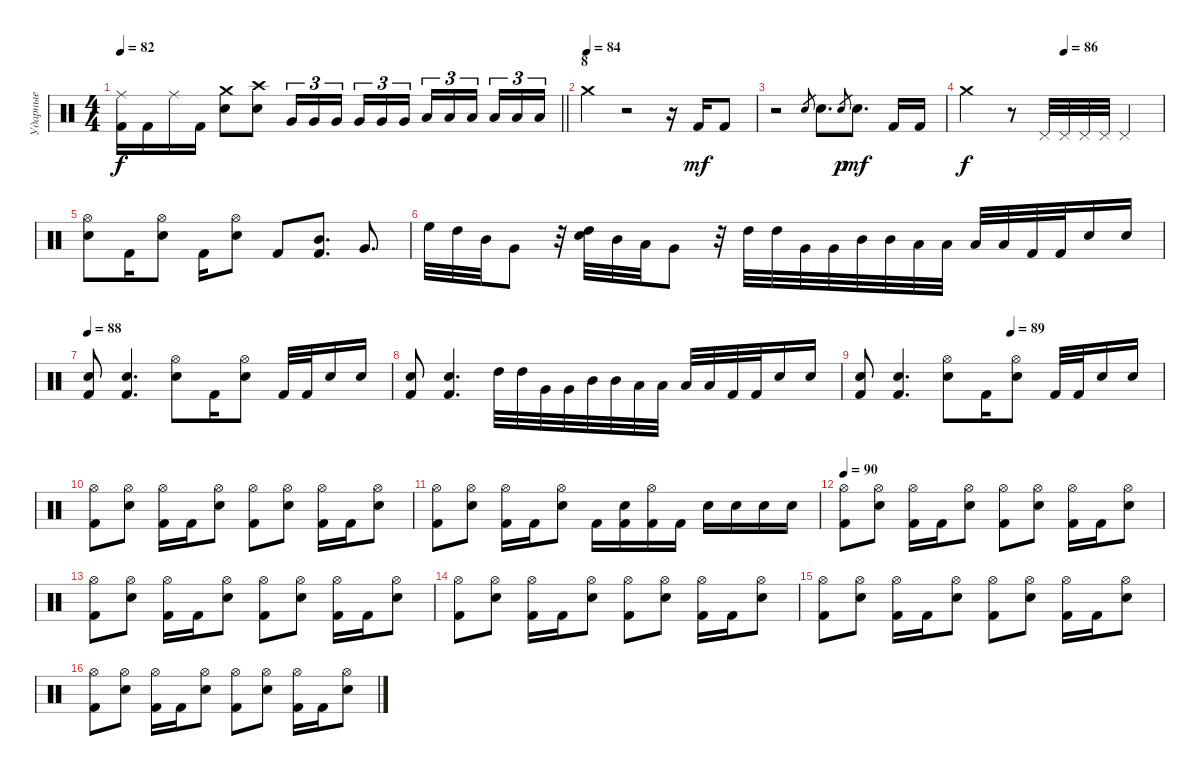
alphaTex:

\track ("Ударные" "Ударные") {mute instrument percussion}
\staff {score}
\articulation defaults
\ts (4 4)
\tempo 82
\clef neutral
\barLineRight lightlight
\ks c
("Ride (middle)" "Kick (hit) 2").16{dy f} "Kick (hit) 2".16 "Ride (middle)".16 "Kick (hit) 2".16 ("Crash medium (hit)" "Electric Snare (hit)").8 ("Crash high (hit)" "Electric Snare (hit)").8 "Very Low Tom (hit)".16{tu (3 2)} "Very Low Tom (hit)".16{tu (3 2)} "Very Low Tom (hit)".16{tu (3 2) beam splitsecondary} "Very Low Tom (hit)".16{tu (3 2)} "Very Low Tom (hit)".16{tu (3 2)} "Very Low Tom (hit)".16{tu (3 2)} "Low Floor Tom (hit)".16{tu (3 2)} "Low Floor Tom (hit)".16{tu (3 2)} "Low Floor Tom (hit)".16{tu (3 2) beam splitsecondary} "Low Floor Tom (hit)".16{tu (3 2)} "Low Floor Tom (hit)".16{tu (3 2)} "Low Floor Tom (hit)".16{tu (3 2)} |
\section ("" "8")
\tempo (84)
"Crash medium (hit)".4 r.2 r.16 "Kick (hit) 2".16{dy mf} "Kick (hit) 2".8 |
r.2 "Electric Snare (hit)".8{gr} "Electric Snare (hit)".8{d} "Electric Snare (hit)".8{gr dy p} "Electric Snare (hit)".8{d dy mf} "Kick (hit) 2".16 "Kick (hit) 2".16 |
\tempo (86 0.5)
"Crash medium (hit)".2{dy f} r.8 "Pedal Hi-Hat (hit)".32 "Pedal Hi-Hat (hit)".32 "Pedal Hi-Hat (hit)".32 "Pedal Hi-Hat (hit)".32 "Pedal Hi-Hat (hit)".4 |
("Hi-Hat (open)" "Electric Snare (hit)").8 "Kick (hit) 2".16 ("Hi-Hat (open)" "Electric Snare (hit)").8 "Kick (hit) 2".16 ("Hi-Hat (open)" "Electric Snare (hit)").8 "Kick (hit) 2".8 ("Mid Tom (hit)" "Kick (hit) 2").8{d} "Very Low Tom (hit)".8{d} |
"High Floor Tom (hit)".32 "High Tom (hit)".32 "Mid Tom (hit)".32 "Very Low Tom (hit)".8 r.32 ("High Tom (hit)" "Electric Snare (hit)").32 "Mid Tom (hit)".32 "Low Tom (hit)".32 "Very Low Tom (hit)".8 r.32 "High Tom (hit)".32 "High Tom (hit)".32 "Very Low Tom (hit)".32 "Very Low Tom (hit)".32 "Mid Tom (hit)".32 "Mid Tom (hit)".32 "Low Floor Tom (hit)".32 "Low Floor Tom (hit)".32 "Low Tom (hit)".32 "Low Tom (hit)".32 "Kick (hit) 2".32 "Kick (hit) 2".32 "Electric Snare (hit)".16 "Electric Snare (hit)".16 |
\tempo 88
("Electric Snare (hit)" "Kick (hit) 2").8 ("Electric Snare (hit)" "Kick (hit) 2").4{d} ("Hi-Hat (open)" "Electric Snare (hit)").8 "Kick (hit) 2".16 ("Hi-Hat (open)" "Electric Snare (hit)").8 "Kick (hit) 2".32 "Kick (hit) 2".32 "Electric Snare (hit)".16 "Electric Snare (hit)".16 |
("Electric Snare (hit)" "Kick (hit) 2").8 ("Electric Snare (hit)" "Kick (hit) 2").4{d} "High Tom (hit)".32 "High Tom (hit)".32 "Very Low Tom (hit)".32 "Very Low Tom (hit)".32 "Mid Tom (hit)".32 "Mid Tom (hit)".32 "Low Floor Tom (hit)".32 "Low Floor Tom (hit)".32 "Low Tom (hit)".32 "Low Tom (hit)".32 "Kick (hit) 2".32 "Kick (hit) 2".32 "Electric Snare (hit)".16 "Electric Snare (hit)".16 |
\tempo (89 0.5)
("Electric Snare (hit)" "Kick (hit) 2").8 ("Electric Snare (hit)" "Kick (hit) 2").4{d} ("Hi-Hat (open)" "Electric Snare (hit)").8 "Kick (hit) 2".16 ("Hi-Hat (open)" "Electric Snare (hit)").8 "Kick (hit) 2".32 "Kick (hit) 2".32 "Electric Snare (hit)".16 "Electric Snare (hit)".16 |
("Hi-Hat (open)" "Kick (hit) 2").8 ("Hi-Hat (open)" "Electric Snare (hit)").8 ("Hi-Hat (open)" "Kick (hit) 2").16 "Kick (hit) 2".16 ("Hi-Hat (open)" "Electric Snare (hit)").8 ("Hi-Hat (open)" "Kick (hit) 2").8 ("Hi-Hat (open)" "Electric Snare (hit)").8 ("Hi-Hat (open)" "Kick (hit) 2").16 "Kick (hit) 2".16 ("Hi-Hat (open)" "Electric Snare (hit)").8 |
("Hi-Hat (open)" "Kick (hit) 2").8 ("Hi-Hat (open)" "Electric Snare (hit)").8 ("Hi-Hat (open)" "Kick (hit) 2").16 "Kick (hit) 2".16 ("Hi-Hat (open)" "Electric Snare (hit)").8 "Kick (hit) 2".16 ("Electric Snare (hit)" "Kick (hit) 2").16 ("Hi-Hat (open)" "Kick (hit) 2").16 "Kick (hit) 2".16 "Electric Snare (hit)".16 "Electric Snare (hit)".16 "Electric Snare (hit)".16 "Electric Snare (hit)".16 |
\tempo 90
("Hi-Hat (open)" "Kick (hit) 2").8 ("Hi-Hat (open)" "Electric Snare (hit)").8 ("Hi-Hat (open)" "Kick (hit) 2").16 "Kick (hit) 2".16 ("Hi-Hat (open)" "Electric Snare (hit)").8 ("Hi-Hat (open)" "Kick (hit) 2").8 ("Hi-Hat (open)" "Electric Snare (hit)").8 ("Hi-Hat (open)" "Kick (hit) 2").16 "Kick (hit) 2".16 ("Hi-Hat (open)" "Electric Snare (hit)").8 |
("Hi-Hat (open)" "Kick (hit) 2").8 ("Hi-Hat (open)" "Electric Snare (hit)").8 ("Hi-Hat (open)" "Kick (hit) 2").16 "Kick (hit) 2".16 ("Hi-Hat (open)" "Electric Snare (hit)").8 ("Hi-Hat (open)" "Kick (hit) 2").8 ("Hi-Hat (open)" "Electric Snare (hit)").8 ("Hi-Hat (open)" "Kick (hit) 2").16 "Kick (hit) 2".16 ("Hi-Hat (open)" "Electric Snare (hit)").8 |
("Hi-Hat (open)" "Kick (hit) 2").8 ("Hi-Hat (open)" "Electric Snare (hit)").8 ("Hi-Hat (open)" "Kick (hit) 2").16 "Kick (hit) 2".16 ("Hi-Hat (open)" "Electric Snare (hit)").8 ("Hi-Hat (open)" "Kick (hit) 2").8 ("Hi-Hat (open)" "Electric Snare (hit)").8 ("Hi-Hat (open)" "Kick (hit) 2").16 "Kick (hit) 2".16 ("Hi-Hat (open)" "Electric Snare (hit)").8 |
("Hi-Hat (open)" "Kick (hit) 2").8 ("Hi-Hat (open)" "Electric Snare (hit)").8 ("Hi-Hat (open)" "Kick (hit) 2").16 "Kick (hit) 2".16 ("Hi-Hat (open)" "Electric Snare (hit)").8 ("Hi-Hat (open)" "Kick (hit) 2").8 ("Hi-Hat (open)" "Electric Snare (hit)").8 ("Hi-Hat (open)" "Kick (hit) 2").16 "Kick (hit) 2".16 ("Hi-Hat (open)" "Electric Snare (hit)").8 |
("Hi-Hat (open)" "Kick (hit) 2").8 ("Hi-Hat (open)" "Electric Snare (hit)").8 ("Hi-Hat (open)" "Kick (hit) 2").16 "Kick (hit) 2".16 ("Hi-Hat (open)" "Electric Snare (hit)").8 ("Hi-Hat (open)" "Kick (hit) 2").8 ("Hi-Hat (open)" "Electric Snare (hit)").8 ("Hi-Hat (open)" "Kick (hit) 2").16 "Kick (hit) 2".16 ("Hi-Hat (open)" "Electric Snare (hit)").8
